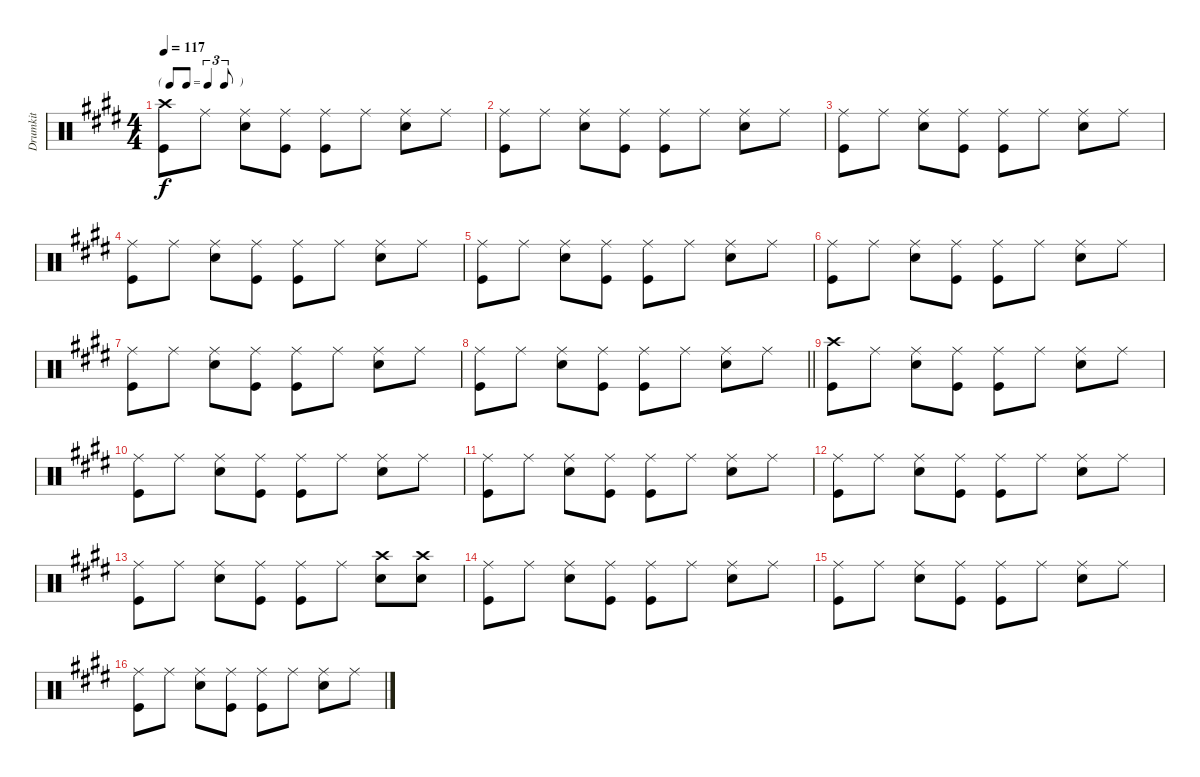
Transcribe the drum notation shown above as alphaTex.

\track ("Drumkit" "Drumkit") {instrument percussion}
\staff {score}
\articulation defaults
\ts (4 4)
\tf triplet8th
\tempo 117
\clef neutral
\ks e
("Crash high (hit)" "Kick (hit)").8{dy f} "Ride (middle)".8 ("Ride (middle)" "Snare (hit) 2").8 ("Ride (middle)" "Kick (hit)").8 ("Ride (middle)" "Kick (hit)").8 "Ride (middle)".8 ("Ride (middle)" "Snare (hit) 2").8 "Ride (middle)".8 |
("Ride (middle)" "Kick (hit)").8 "Ride (middle)".8 ("Ride (middle)" "Snare (hit) 2").8 ("Ride (middle)" "Kick (hit)").8 ("Ride (middle)" "Kick (hit)").8 "Ride (middle)".8 ("Ride (middle)" "Snare (hit) 2").8 "Ride (middle)".8 |
("Ride (middle)" "Kick (hit)").8 "Ride (middle)".8 ("Ride (middle)" "Snare (hit) 2").8 ("Ride (middle)" "Kick (hit)").8 ("Ride (middle)" "Kick (hit)").8 "Ride (middle)".8 ("Ride (middle)" "Snare (hit) 2").8 "Ride (middle)".8 |
("Ride (middle)" "Kick (hit)").8 "Ride (middle)".8 ("Ride (middle)" "Snare (hit) 2").8 ("Ride (middle)" "Kick (hit)").8 ("Ride (middle)" "Kick (hit)").8 "Ride (middle)".8 ("Ride (middle)" "Snare (hit) 2").8 "Ride (middle)".8 |
("Ride (middle)" "Kick (hit)").8 "Ride (middle)".8 ("Ride (middle)" "Snare (hit) 2").8 ("Ride (middle)" "Kick (hit)").8 ("Ride (middle)" "Kick (hit)").8 "Ride (middle)".8 ("Ride (middle)" "Snare (hit) 2").8 "Ride (middle)".8 |
("Ride (middle)" "Kick (hit)").8 "Ride (middle)".8 ("Ride (middle)" "Snare (hit) 2").8 ("Ride (middle)" "Kick (hit)").8 ("Ride (middle)" "Kick (hit)").8 "Ride (middle)".8 ("Ride (middle)" "Snare (hit) 2").8 "Ride (middle)".8 |
("Ride (middle)" "Kick (hit)").8 "Ride (middle)".8 ("Ride (middle)" "Snare (hit) 2").8 ("Ride (middle)" "Kick (hit)").8 ("Ride (middle)" "Kick (hit)").8 "Ride (middle)".8 ("Ride (middle)" "Snare (hit) 2").8 "Ride (middle)".8 |
\barLineRight lightlight
("Ride (middle)" "Kick (hit)").8 "Ride (middle)".8 ("Ride (middle)" "Snare (hit) 2").8 ("Ride (middle)" "Kick (hit)").8 ("Ride (middle)" "Kick (hit)").8 "Ride (middle)".8 ("Ride (middle)" "Snare (hit) 2").8 "Ride (middle)".8 |
("Crash high (hit)" "Kick (hit)").8 "Ride (middle)".8 ("Ride (middle)" "Snare (hit) 2").8 ("Ride (middle)" "Kick (hit)").8 ("Ride (middle)" "Kick (hit)").8 "Ride (middle)".8 ("Ride (middle)" "Snare (hit) 2").8 "Ride (middle)".8 |
("Ride (middle)" "Kick (hit)").8 "Ride (middle)".8 ("Ride (middle)" "Snare (hit) 2").8 ("Ride (middle)" "Kick (hit)").8 ("Ride (middle)" "Kick (hit)").8 "Ride (middle)".8 ("Ride (middle)" "Snare (hit) 2").8 "Ride (middle)".8 |
("Ride (middle)" "Kick (hit)").8 "Ride (middle)".8 ("Ride (middle)" "Snare (hit) 2").8 ("Ride (middle)" "Kick (hit)").8 ("Ride (middle)" "Kick (hit)").8 "Ride (middle)".8 ("Ride (middle)" "Snare (hit) 2").8 "Ride (middle)".8 |
("Ride (middle)" "Kick (hit)").8 "Ride (middle)".8 ("Ride (middle)" "Snare (hit) 2").8 ("Ride (middle)" "Kick (hit)").8 ("Ride (middle)" "Kick (hit)").8 "Ride (middle)".8 ("Ride (middle)" "Snare (hit) 2").8 "Ride (middle)".8 |
("Ride (middle)" "Kick (hit)").8 "Ride (middle)".8 ("Ride (middle)" "Snare (hit) 2").8 ("Ride (middle)" "Kick (hit)").8 ("Ride (middle)" "Kick (hit)").8 "Ride (middle)".8 ("Crash high (hit)" "Snare (hit) 2").8 ("Crash high (hit)" "Snare (hit) 2").8 |
("Ride (middle)" "Kick (hit)").8 "Ride (middle)".8 ("Ride (middle)" "Snare (hit) 2").8 ("Ride (middle)" "Kick (hit)").8 ("Ride (middle)" "Kick (hit)").8 "Ride (middle)".8 ("Ride (middle)" "Snare (hit) 2").8 "Ride (middle)".8 |
("Ride (middle)" "Kick (hit)").8 "Ride (middle)".8 ("Ride (middle)" "Snare (hit) 2").8 ("Ride (middle)" "Kick (hit)").8 ("Ride (middle)" "Kick (hit)").8 "Ride (middle)".8 ("Ride (middle)" "Snare (hit) 2").8 "Ride (middle)".8 |
("Ride (middle)" "Kick (hit)").8 "Ride (middle)".8 ("Ride (middle)" "Snare (hit) 2").8 ("Ride (middle)" "Kick (hit)").8 ("Ride (middle)" "Kick (hit)").8 "Ride (middle)".8 ("Ride (middle)" "Snare (hit) 2").8 "Ride (middle)".8
